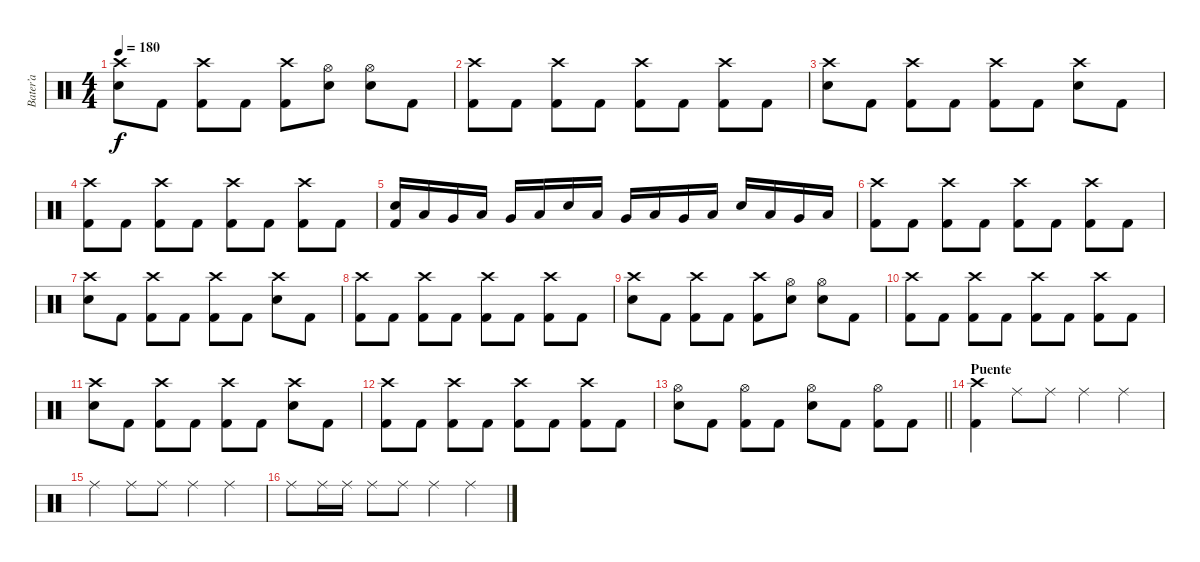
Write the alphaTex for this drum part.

\track ("Bater’a" "Bater’a") {instrument percussion bank 211}
\staff {score}
\articulation defaults
\ts (4 4)
\tempo 180
\clef neutral
\ks c
("Crash high (hit)" "Electric Snare (hit)").8{dy f} "Kick (hit) 2".8 ("Crash high (hit)" "Kick (hit) 2").8 "Kick (hit) 2".8 ("Crash high (hit)" "Kick (hit) 2").8 ("Hi-Hat (open)" "Electric Snare (hit)").8 ("Hi-Hat (open)" "Electric Snare (hit)").8 "Kick (hit) 2".8 |
("Crash high (hit)" "Kick (hit) 2").8 "Kick (hit) 2".8 ("Crash high (hit)" "Kick (hit) 2").8 "Kick (hit) 2".8 ("Crash high (hit)" "Kick (hit) 2").8 "Kick (hit) 2".8 ("Crash high (hit)" "Kick (hit) 2").8 "Kick (hit) 2".8 |
("Crash high (hit)" "Electric Snare (hit)").8 "Kick (hit) 2".8 ("Crash high (hit)" "Kick (hit) 2").8 "Kick (hit) 2".8 ("Crash high (hit)" "Kick (hit) 2").8 "Kick (hit) 2".8 ("Crash high (hit)" "Electric Snare (hit)").8 "Kick (hit) 2".8 |
("Crash high (hit)" "Kick (hit) 2").8 "Kick (hit) 2".8 ("Crash high (hit)" "Kick (hit) 2").8 "Kick (hit) 2".8 ("Crash high (hit)" "Kick (hit) 2").8 "Kick (hit) 2".8 ("Crash high (hit)" "Kick (hit) 2").8 "Kick (hit) 2".8 |
("Electric Snare (hit)" "Kick (hit) 2").16 "Low Floor Tom (hit)".16 "Very Low Tom (hit)".16 "Low Floor Tom (hit)".16 "Very Low Tom (hit)".16 "Low Floor Tom (hit)".16 "Electric Snare (hit)".16 "Low Floor Tom (hit)".16 "Very Low Tom (hit)".16 "Low Floor Tom (hit)".16 "Very Low Tom (hit)".16 "Low Floor Tom (hit)".16 "Electric Snare (hit)".16 "Low Floor Tom (hit)".16 "Very Low Tom (hit)".16 "Low Floor Tom (hit)".16 |
("Crash high (hit)" "Kick (hit) 2").8 "Kick (hit) 2".8 ("Crash high (hit)" "Kick (hit) 2").8 "Kick (hit) 2".8 ("Crash high (hit)" "Kick (hit) 2").8 "Kick (hit) 2".8 ("Crash high (hit)" "Kick (hit) 2").8 "Kick (hit) 2".8 |
("Crash high (hit)" "Electric Snare (hit)").8 "Kick (hit) 2".8 ("Crash high (hit)" "Kick (hit) 2").8 "Kick (hit) 2".8 ("Crash high (hit)" "Kick (hit) 2").8 "Kick (hit) 2".8 ("Crash high (hit)" "Electric Snare (hit)").8 "Kick (hit) 2".8 |
("Crash high (hit)" "Kick (hit) 2").8 "Kick (hit) 2".8 ("Crash high (hit)" "Kick (hit) 2").8 "Kick (hit) 2".8 ("Crash high (hit)" "Kick (hit) 2").8 "Kick (hit) 2".8 ("Crash high (hit)" "Kick (hit) 2").8 "Kick (hit) 2".8 |
("Crash high (hit)" "Electric Snare (hit)").8 "Kick (hit) 2".8 ("Crash high (hit)" "Kick (hit) 2").8 "Kick (hit) 2".8 ("Crash high (hit)" "Kick (hit) 2").8 ("Hi-Hat (open)" "Electric Snare (hit)").8 ("Hi-Hat (open)" "Electric Snare (hit)").8 "Kick (hit) 2".8 |
("Crash high (hit)" "Kick (hit) 2").8 "Kick (hit) 2".8 ("Crash high (hit)" "Kick (hit) 2").8 "Kick (hit) 2".8 ("Crash high (hit)" "Kick (hit) 2").8 "Kick (hit) 2".8 ("Crash high (hit)" "Kick (hit) 2").8 "Kick (hit) 2".8 |
("Crash high (hit)" "Electric Snare (hit)").8 "Kick (hit) 2".8 ("Crash high (hit)" "Kick (hit) 2").8 "Kick (hit) 2".8 ("Crash high (hit)" "Kick (hit) 2").8 "Kick (hit) 2".8 ("Crash high (hit)" "Electric Snare (hit)").8 "Kick (hit) 2".8 |
("Crash high (hit)" "Kick (hit) 2").8 "Kick (hit) 2".8 ("Crash high (hit)" "Kick (hit) 2").8 "Kick (hit) 2".8 ("Crash high (hit)" "Kick (hit) 2").8 "Kick (hit) 2".8 ("Crash high (hit)" "Kick (hit) 2").8 "Kick (hit) 2".8 |
\barLineRight lightlight
("Hi-Hat (open)" "Electric Snare (hit)").8 "Kick (hit) 2".8 ("Hi-Hat (open)" "Kick (hit) 2").8 "Kick (hit) 2".8 ("Hi-Hat (open)" "Electric Snare (hit)").8 "Kick (hit) 2".8 ("Hi-Hat (open)" "Kick (hit) 2").8 "Kick (hit) 2".8 |
\section ("" "Puente")
("Crash high (hit)" "Kick (hit) 2").4 "Ride (middle)".8 "Ride (middle)".8 "Ride (middle)".4 "Ride (middle)".4 |
"Ride (middle)".4 "Ride (middle)".8 "Ride (middle)".8 "Ride (middle)".4 "Ride (middle)".4 |
"Ride (middle)".8 "Ride (middle)".16 "Ride (middle)".16 "Ride (middle)".8 "Ride (middle)".8 "Ride (middle)".4 "Ride (middle)".4
